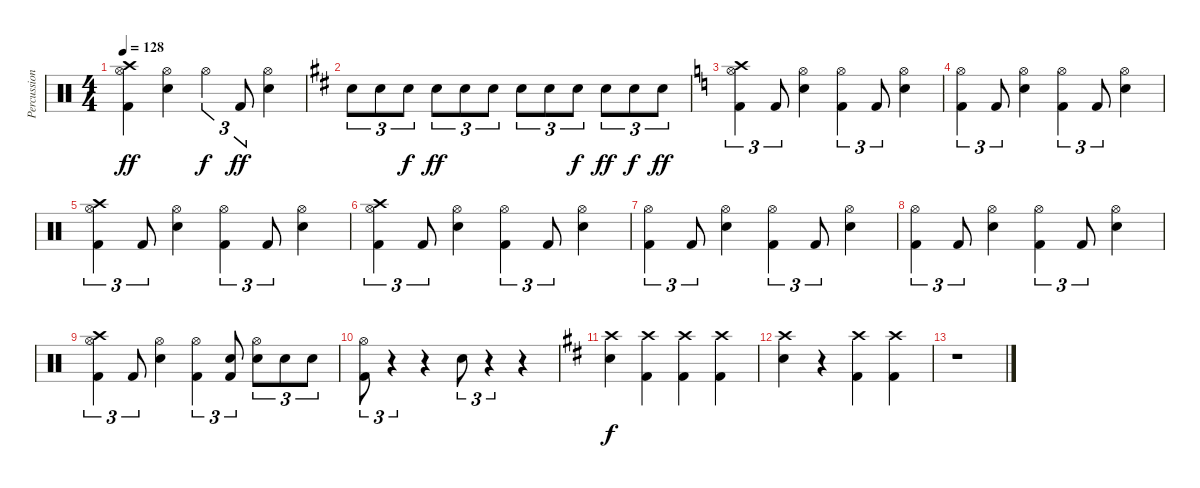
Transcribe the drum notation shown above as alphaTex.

\track ("Percussion" "Percussion") {instrument percussion}
\staff {score}
\articulation defaults
\ts (4 4)
\tempo 128
\clef neutral
\ks c
("Hi-Hat (open)" "Crash high (hit)" "Kick (hit) 2").4{dy ff} ("Hi-Hat (open)" "Snare (hit) 2").4 "Hi-Hat (open)".4{tu (3 2) dy f} "Kick (hit) 2".8{tu (3 2) dy ff} ("Hi-Hat (open)" "Snare (hit) 2").4 |
\ks d "Snare (hit) 2".8{tu (3 2)} "Snare (hit) 2".8{tu (3 2)} "Snare (hit) 2".8{tu (3 2) dy f} "Snare (hit) 2".8{tu (3 2) dy ff} "Snare (hit) 2".8{tu (3 2)} "Snare (hit) 2".8{tu (3 2)} "Snare (hit) 2".8{tu (3 2)} "Snare (hit) 2".8{tu (3 2)} "Snare (hit) 2".8{tu (3 2) dy f} "Snare (hit) 2".8{tu (3 2) dy ff} "Snare (hit) 2".8{tu (3 2) dy f} "Snare (hit) 2".8{tu (3 2) dy ff}
|
\ks c
("Kick (hit) 2" "Crash high (hit)" "Hi-Hat (open)").4{tu (3 2)} "Kick (hit) 2".8{tu (3 2)} ("Snare (hit) 2" "Hi-Hat (open)").4 ("Hi-Hat (open)" "Kick (hit) 2").4{tu (3 2)} "Kick (hit) 2".8{tu (3 2)} ("Hi-Hat (open)" "Snare (hit) 2").4 |
("Kick (hit) 2" "Hi-Hat (open)").4{tu (3 2)} "Kick (hit) 2".8{tu (3 2)} ("Hi-Hat (open)" "Snare (hit) 2").4 ("Hi-Hat (open)" "Kick (hit) 2").4{tu (3 2)} "Kick (hit) 2".8{tu (3 2)} ("Snare (hit) 2" "Hi-Hat (open)").4 |
("Kick (hit) 2" "Crash high (hit)" "Hi-Hat (open)").4{tu (3 2)} "Kick (hit) 2".8{tu (3 2)} ("Snare (hit) 2" "Hi-Hat (open)").4 ("Hi-Hat (open)" "Kick (hit) 2").4{tu (3 2)} "Kick (hit) 2".8{tu (3 2)} ("Hi-Hat (open)" "Snare (hit) 2").4 |
("Kick (hit) 2" "Crash high (hit)" "Hi-Hat (open)").4{tu (3 2)} "Kick (hit) 2".8{tu (3 2)} ("Snare (hit) 2" "Hi-Hat (open)").4 ("Hi-Hat (open)" "Kick (hit) 2").4{tu (3 2)} "Kick (hit) 2".8{tu (3 2)} ("Hi-Hat (open)" "Snare (hit) 2").4 |
("Kick (hit) 2" "Hi-Hat (open)").4{tu (3 2)} "Kick (hit) 2".8{tu (3 2)} ("Hi-Hat (open)" "Snare (hit) 2").4 ("Hi-Hat (open)" "Kick (hit) 2").4{tu (3 2)} "Kick (hit) 2".8{tu (3 2)} ("Snare (hit) 2" "Hi-Hat (open)").4 |
("Kick (hit) 2" "Hi-Hat (open)").4{tu (3 2)} "Kick (hit) 2".8{tu (3 2)} ("Hi-Hat (open)" "Snare (hit) 2").4 ("Hi-Hat (open)" "Kick (hit) 2").4{tu (3 2)} "Kick (hit) 2".8{tu (3 2)} ("Snare (hit) 2" "Hi-Hat (open)").4 |
("Crash high (hit)" "Kick (hit) 2" "Hi-Hat (open)").4{tu (3 2)} "Kick (hit) 2".8{tu (3 2)} ("Hi-Hat (open)" "Snare (hit) 2").4 ("Kick (hit) 2" "Hi-Hat (open)").4{tu (3 2)} ("Snare (hit) 2" "Kick (hit) 2").8{tu (3 2)} ("Snare (hit) 2" "Hi-Hat (open)").8{tu (3 2)} "Snare (hit) 2".8{tu (3 2)} "Snare (hit) 2".8{tu (3 2)} |
("Hi-Hat (open)" "Kick (hit) 2").8{tu (3 2)} r.4{tu (3 2)} r.4 "Snare (hit) 2".8{tu (3 2)} r.4{tu (3 2)} r.4 |
\ks d
("Snare (hit) 2" "Crash high (hit)").4{dy f} ("Kick (hit) 2" "Crash high (hit)").4 ("Kick (hit) 2" "Crash high (hit)").4 ("Kick (hit) 2" "Crash high (hit)").4 |
("Snare (hit) 2" "Crash high (hit)").4 r.4 ("Kick (hit) 2" "Crash high (hit)").4 ("Kick (hit) 2" "Crash high (hit)").4 |
r.1
